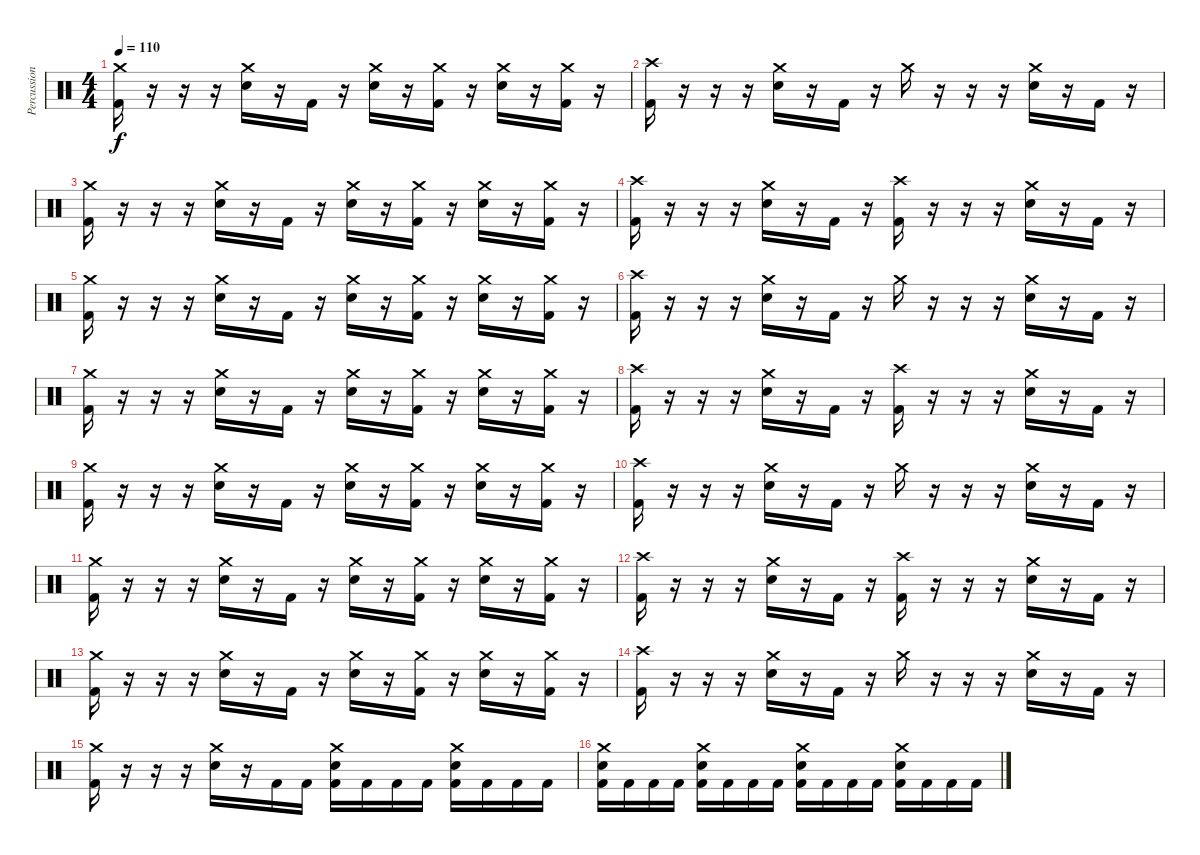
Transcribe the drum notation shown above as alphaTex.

\track ("Percussion" "Percussion") {instrument percussion}
\staff {score}
\articulation defaults
\ts (4 4)
\tempo 110
\clef neutral
\ks c
("Crash medium (hit)" "Kick (hit) 2").16{dy f} r.16 r.16 r.16 ("Crash medium (hit)" "Electric Snare (hit)").16 r.16 "Kick (hit) 2".16 r.16 ("Crash medium (hit)" "Electric Snare (hit)").16 r.16 ("Crash medium (hit)" "Kick (hit) 2").16 r.16 ("Crash medium (hit)" "Electric Snare (hit)").16 r.16 ("Crash medium (hit)" "Kick (hit) 2").16 r.16 |
("Crash high (hit)" "Kick (hit) 2").16 r.16 r.16 r.16 ("Crash medium (hit)" "Electric Snare (hit)").16 r.16 "Kick (hit) 2".16 r.16 "Crash medium (hit)".16 r.16 r.16 r.16 ("Crash medium (hit)" "Electric Snare (hit)").16 r.16 "Kick (hit) 2".16 r.16 |
("Crash medium (hit)" "Kick (hit) 2").16 r.16 r.16 r.16 ("Crash medium (hit)" "Electric Snare (hit)").16 r.16 "Kick (hit) 2".16 r.16 ("Crash medium (hit)" "Electric Snare (hit)").16 r.16 ("Crash medium (hit)" "Kick (hit) 2").16 r.16 ("Crash medium (hit)" "Electric Snare (hit)").16 r.16 ("Crash medium (hit)" "Kick (hit) 2").16 r.16 |
("Crash high (hit)" "Kick (hit) 2").16 r.16 r.16 r.16 ("Crash medium (hit)" "Electric Snare (hit)").16 r.16 "Kick (hit) 2".16 r.16 ("Crash high (hit)" "Kick (hit) 2").16 r.16 r.16 r.16 ("Crash medium (hit)" "Electric Snare (hit)").16 r.16 "Kick (hit) 2".16 r.16 |
("Crash medium (hit)" "Kick (hit) 2").16 r.16 r.16 r.16 ("Crash medium (hit)" "Electric Snare (hit)").16 r.16 "Kick (hit) 2".16 r.16 ("Crash medium (hit)" "Electric Snare (hit)").16 r.16 ("Crash medium (hit)" "Kick (hit) 2").16 r.16 ("Crash medium (hit)" "Electric Snare (hit)").16 r.16 ("Crash medium (hit)" "Kick (hit) 2").16 r.16 |
("Crash high (hit)" "Kick (hit) 2").16 r.16 r.16 r.16 ("Crash medium (hit)" "Electric Snare (hit)").16 r.16 "Kick (hit) 2".16 r.16 "Crash medium (hit)".16 r.16 r.16 r.16 ("Crash medium (hit)" "Electric Snare (hit)").16 r.16 "Kick (hit) 2".16 r.16 |
("Crash medium (hit)" "Kick (hit) 2").16 r.16 r.16 r.16 ("Crash medium (hit)" "Electric Snare (hit)").16 r.16 "Kick (hit) 2".16 r.16 ("Crash medium (hit)" "Electric Snare (hit)").16 r.16 ("Crash medium (hit)" "Kick (hit) 2").16 r.16 ("Crash medium (hit)" "Electric Snare (hit)").16 r.16 ("Crash medium (hit)" "Kick (hit) 2").16 r.16 |
("Crash high (hit)" "Kick (hit) 2").16 r.16 r.16 r.16 ("Crash medium (hit)" "Electric Snare (hit)").16 r.16 "Kick (hit) 2".16 r.16 ("Crash high (hit)" "Kick (hit) 2").16 r.16 r.16 r.16 ("Crash medium (hit)" "Electric Snare (hit)").16 r.16 "Kick (hit) 2".16 r.16 |
("Crash medium (hit)" "Kick (hit) 2").16 r.16 r.16 r.16 ("Crash medium (hit)" "Electric Snare (hit)").16 r.16 "Kick (hit) 2".16 r.16 ("Crash medium (hit)" "Electric Snare (hit)").16 r.16 ("Crash medium (hit)" "Kick (hit) 2").16 r.16 ("Crash medium (hit)" "Electric Snare (hit)").16 r.16 ("Crash medium (hit)" "Kick (hit) 2").16 r.16 |
("Crash high (hit)" "Kick (hit) 2").16 r.16 r.16 r.16 ("Crash medium (hit)" "Electric Snare (hit)").16 r.16 "Kick (hit) 2".16 r.16 "Crash medium (hit)".16 r.16 r.16 r.16 ("Crash medium (hit)" "Electric Snare (hit)").16 r.16 "Kick (hit) 2".16 r.16 |
("Crash medium (hit)" "Kick (hit) 2").16 r.16 r.16 r.16 ("Crash medium (hit)" "Electric Snare (hit)").16 r.16 "Kick (hit) 2".16 r.16 ("Crash medium (hit)" "Electric Snare (hit)").16 r.16 ("Crash medium (hit)" "Kick (hit) 2").16 r.16 ("Crash medium (hit)" "Electric Snare (hit)").16 r.16 ("Crash medium (hit)" "Kick (hit) 2").16 r.16 |
("Crash high (hit)" "Kick (hit) 2").16 r.16 r.16 r.16 ("Crash medium (hit)" "Electric Snare (hit)").16 r.16 "Kick (hit) 2".16 r.16 ("Crash high (hit)" "Kick (hit) 2").16 r.16 r.16 r.16 ("Crash medium (hit)" "Electric Snare (hit)").16 r.16 "Kick (hit) 2".16 r.16 |
("Crash medium (hit)" "Kick (hit) 2").16 r.16 r.16 r.16 ("Crash medium (hit)" "Electric Snare (hit)").16 r.16 "Kick (hit) 2".16 r.16 ("Crash medium (hit)" "Electric Snare (hit)").16 r.16 ("Crash medium (hit)" "Kick (hit) 2").16 r.16 ("Crash medium (hit)" "Electric Snare (hit)").16 r.16 ("Crash medium (hit)" "Kick (hit) 2").16 r.16 |
("Crash high (hit)" "Kick (hit) 2").16 r.16 r.16 r.16 ("Crash medium (hit)" "Electric Snare (hit)").16 r.16 "Kick (hit) 2".16 r.16 "Crash medium (hit)".16 r.16 r.16 r.16 ("Crash medium (hit)" "Electric Snare (hit)").16 r.16 "Kick (hit) 2".16 r.16 |
("Crash medium (hit)" "Kick (hit) 2").16 r.16 r.16 r.16 ("Crash medium (hit)" "Electric Snare (hit)").16 r.16 "Kick (hit) 2".16 "Kick (hit) 2".16 ("Crash medium (hit)" "Electric Snare (hit)" "Kick (hit) 2").16 "Kick (hit) 2".16 "Kick (hit) 2".16 "Kick (hit) 2".16 ("Crash medium (hit)" "Electric Snare (hit)" "Kick (hit) 2").16 "Kick (hit) 2".16 "Kick (hit) 2".16 "Kick (hit) 2".16 |
("Crash medium (hit)" "Electric Snare (hit)" "Kick (hit) 2").16 "Kick (hit) 2".16 "Kick (hit) 2".16 "Kick (hit) 2".16 ("Crash medium (hit)" "Electric Snare (hit)" "Kick (hit) 2").16 "Kick (hit) 2".16 "Kick (hit) 2".16 "Kick (hit) 2".16 ("Crash medium (hit)" "Electric Snare (hit)" "Kick (hit) 2").16 "Kick (hit) 2".16 "Kick (hit) 2".16 "Kick (hit) 2".16 ("Crash medium (hit)" "Electric Snare (hit)" "Kick (hit) 2").16 "Kick (hit) 2".16 "Kick (hit) 2".16 "Kick (hit) 2".16
